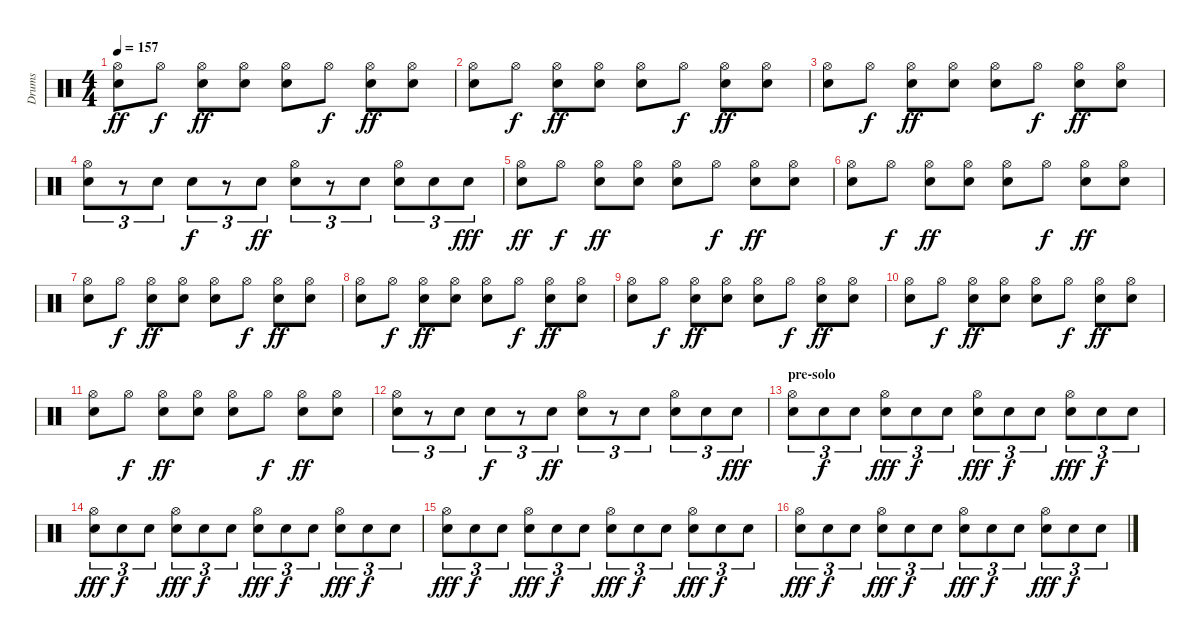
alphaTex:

\track ("Drums" "Drums") {instrument percussion}
\staff {score}
\articulation defaults
\ts (4 4)
\tempo 157
\clef neutral
\ks c
("Snare (hit) 2" "Hi-Hat (open)").8{dy ff} "Hi-Hat (open)".8{dy f} ("Snare (hit) 2" "Hi-Hat (open)").8{dy ff} ("Electric Snare (hit)" "Hi-Hat (open)").8 ("Snare (hit) 2" "Hi-Hat (open)").8 "Hi-Hat (open)".8{dy f} ("Snare (hit) 2" "Hi-Hat (open)").8{dy ff} ("Electric Snare (hit)" "Hi-Hat (open)").8 |
("Snare (hit) 2" "Hi-Hat (open)").8 "Hi-Hat (open)".8{dy f} ("Snare (hit) 2" "Hi-Hat (open)").8{dy ff} ("Electric Snare (hit)" "Hi-Hat (open)").8 ("Snare (hit) 2" "Hi-Hat (open)").8 "Hi-Hat (open)".8{dy f} ("Snare (hit) 2" "Hi-Hat (open)").8{dy ff} ("Electric Snare (hit)" "Hi-Hat (open)").8 |
("Snare (hit) 2" "Hi-Hat (open)").8 "Hi-Hat (open)".8{dy f} ("Snare (hit) 2" "Hi-Hat (open)").8{dy ff} ("Electric Snare (hit)" "Hi-Hat (open)").8 ("Snare (hit) 2" "Hi-Hat (open)").8 "Hi-Hat (open)".8{dy f} ("Snare (hit) 2" "Hi-Hat (open)").8{dy ff} ("Electric Snare (hit)" "Hi-Hat (open)").8 |
("Snare (hit) 2" "Hi-Hat (open)").8{tu (3 2)} r.8{tu (3 2)} "Snare (hit) 2".8{tu (3 2)} "Snare (hit) 2".8{tu (3 2) dy f} r.8{tu (3 2)} "Snare (hit) 2".8{tu (3 2) dy ff} ("Snare (hit) 2" "Hi-Hat (open)").8{tu (3 2)} r.8{tu (3 2)} "Snare (hit) 2".8{tu (3 2)} ("Snare (hit) 2" "Hi-Hat (open)").8{tu (3 2)} "Electric Snare (hit)".8{tu (3 2)} "Electric Snare (hit)".8{tu (3 2) dy fff} |
("Snare (hit) 2" "Hi-Hat (open)").8{dy ff} "Hi-Hat (open)".8{dy f} ("Snare (hit) 2" "Hi-Hat (open)").8{dy ff} ("Electric Snare (hit)" "Hi-Hat (open)").8 ("Snare (hit) 2" "Hi-Hat (open)").8 "Hi-Hat (open)".8{dy f} ("Snare (hit) 2" "Hi-Hat (open)").8{dy ff} ("Electric Snare (hit)" "Hi-Hat (open)").8 |
("Snare (hit) 2" "Hi-Hat (open)").8 "Hi-Hat (open)".8{dy f} ("Snare (hit) 2" "Hi-Hat (open)").8{dy ff} ("Electric Snare (hit)" "Hi-Hat (open)").8 ("Snare (hit) 2" "Hi-Hat (open)").8 "Hi-Hat (open)".8{dy f} ("Snare (hit) 2" "Hi-Hat (open)").8{dy ff} ("Electric Snare (hit)" "Hi-Hat (open)").8 |
("Snare (hit) 2" "Hi-Hat (open)").8 "Hi-Hat (open)".8{dy f} ("Snare (hit) 2" "Hi-Hat (open)").8{dy ff} ("Electric Snare (hit)" "Hi-Hat (open)").8 ("Snare (hit) 2" "Hi-Hat (open)").8 "Hi-Hat (open)".8{dy f} ("Snare (hit) 2" "Hi-Hat (open)").8{dy ff} ("Electric Snare (hit)" "Hi-Hat (open)").8 |
("Snare (hit) 2" "Hi-Hat (open)").8 "Hi-Hat (open)".8{dy f} ("Snare (hit) 2" "Hi-Hat (open)").8{dy ff} ("Electric Snare (hit)" "Hi-Hat (open)").8 ("Snare (hit) 2" "Hi-Hat (open)").8 "Hi-Hat (open)".8{dy f} ("Snare (hit) 2" "Hi-Hat (open)").8{dy ff} ("Electric Snare (hit)" "Hi-Hat (open)").8 |
("Snare (hit) 2" "Hi-Hat (open)").8 "Hi-Hat (open)".8{dy f} ("Snare (hit) 2" "Hi-Hat (open)").8{dy ff} ("Electric Snare (hit)" "Hi-Hat (open)").8 ("Snare (hit) 2" "Hi-Hat (open)").8 "Hi-Hat (open)".8{dy f} ("Snare (hit) 2" "Hi-Hat (open)").8{dy ff} ("Electric Snare (hit)" "Hi-Hat (open)").8 |
("Snare (hit) 2" "Hi-Hat (open)").8 "Hi-Hat (open)".8{dy f} ("Snare (hit) 2" "Hi-Hat (open)").8{dy ff} ("Electric Snare (hit)" "Hi-Hat (open)").8 ("Snare (hit) 2" "Hi-Hat (open)").8 "Hi-Hat (open)".8{dy f} ("Snare (hit) 2" "Hi-Hat (open)").8{dy ff} ("Electric Snare (hit)" "Hi-Hat (open)").8 |
("Snare (hit) 2" "Hi-Hat (open)").8 "Hi-Hat (open)".8{dy f} ("Snare (hit) 2" "Hi-Hat (open)").8{dy ff} ("Electric Snare (hit)" "Hi-Hat (open)").8 ("Snare (hit) 2" "Hi-Hat (open)").8 "Hi-Hat (open)".8{dy f} ("Snare (hit) 2" "Hi-Hat (open)").8{dy ff} ("Electric Snare (hit)" "Hi-Hat (open)").8 |
("Snare (hit) 2" "Hi-Hat (open)").8{tu (3 2)} r.8{tu (3 2)} "Snare (hit) 2".8{tu (3 2)} "Snare (hit) 2".8{tu (3 2) dy f} r.8{tu (3 2)} "Snare (hit) 2".8{tu (3 2) dy ff} ("Snare (hit) 2" "Hi-Hat (open)").8{tu (3 2)} r.8{tu (3 2)} "Snare (hit) 2".8{tu (3 2)} ("Snare (hit) 2" "Hi-Hat (open)").8{tu (3 2)} "Electric Snare (hit)".8{tu (3 2)} "Electric Snare (hit)".8{tu (3 2) dy fff} |
\section ("" "pre-solo")
("Hi-Hat (open)" "Electric Snare (hit)").8{tu (3 2)} "Electric Snare (hit)".8{tu (3 2) dy f} "Electric Snare (hit)".8{tu (3 2)} ("Hi-Hat (open)" "Electric Snare (hit)").8{tu (3 2) dy fff} "Electric Snare (hit)".8{tu (3 2) dy f} "Electric Snare (hit)".8{tu (3 2)} ("Hi-Hat (open)" "Electric Snare (hit)").8{tu (3 2) dy fff} "Electric Snare (hit)".8{tu (3 2) dy f} "Electric Snare (hit)".8{tu (3 2)} ("Hi-Hat (open)" "Electric Snare (hit)").8{tu (3 2) dy fff} "Electric Snare (hit)".8{tu (3 2) dy f} "Electric Snare (hit)".8{tu (3 2)} |
("Hi-Hat (open)" "Electric Snare (hit)").8{tu (3 2) dy fff} "Electric Snare (hit)".8{tu (3 2) dy f} "Electric Snare (hit)".8{tu (3 2)} ("Hi-Hat (open)" "Electric Snare (hit)").8{tu (3 2) dy fff} "Electric Snare (hit)".8{tu (3 2) dy f} "Electric Snare (hit)".8{tu (3 2)} ("Hi-Hat (open)" "Electric Snare (hit)").8{tu (3 2) dy fff} "Electric Snare (hit)".8{tu (3 2) dy f} "Electric Snare (hit)".8{tu (3 2)} ("Hi-Hat (open)" "Electric Snare (hit)").8{tu (3 2) dy fff} "Electric Snare (hit)".8{tu (3 2) dy f} "Electric Snare (hit)".8{tu (3 2)} |
("Hi-Hat (open)" "Electric Snare (hit)").8{tu (3 2) dy fff} "Electric Snare (hit)".8{tu (3 2) dy f} "Electric Snare (hit)".8{tu (3 2)} ("Hi-Hat (open)" "Electric Snare (hit)").8{tu (3 2) dy fff} "Electric Snare (hit)".8{tu (3 2) dy f} "Electric Snare (hit)".8{tu (3 2)} ("Hi-Hat (open)" "Electric Snare (hit)").8{tu (3 2) dy fff} "Electric Snare (hit)".8{tu (3 2) dy f} "Electric Snare (hit)".8{tu (3 2)} ("Hi-Hat (open)" "Electric Snare (hit)").8{tu (3 2) dy fff} "Electric Snare (hit)".8{tu (3 2) dy f} "Electric Snare (hit)".8{tu (3 2)} |
("Hi-Hat (open)" "Electric Snare (hit)").8{tu (3 2) dy fff} "Electric Snare (hit)".8{tu (3 2) dy f} "Electric Snare (hit)".8{tu (3 2)} ("Hi-Hat (open)" "Electric Snare (hit)").8{tu (3 2) dy fff} "Electric Snare (hit)".8{tu (3 2) dy f} "Electric Snare (hit)".8{tu (3 2)} ("Hi-Hat (open)" "Electric Snare (hit)").8{tu (3 2) dy fff} "Electric Snare (hit)".8{tu (3 2) dy f} "Electric Snare (hit)".8{tu (3 2)} ("Hi-Hat (open)" "Electric Snare (hit)").8{tu (3 2) dy fff} "Electric Snare (hit)".8{tu (3 2) dy f} "Electric Snare (hit)".8{tu (3 2)}
